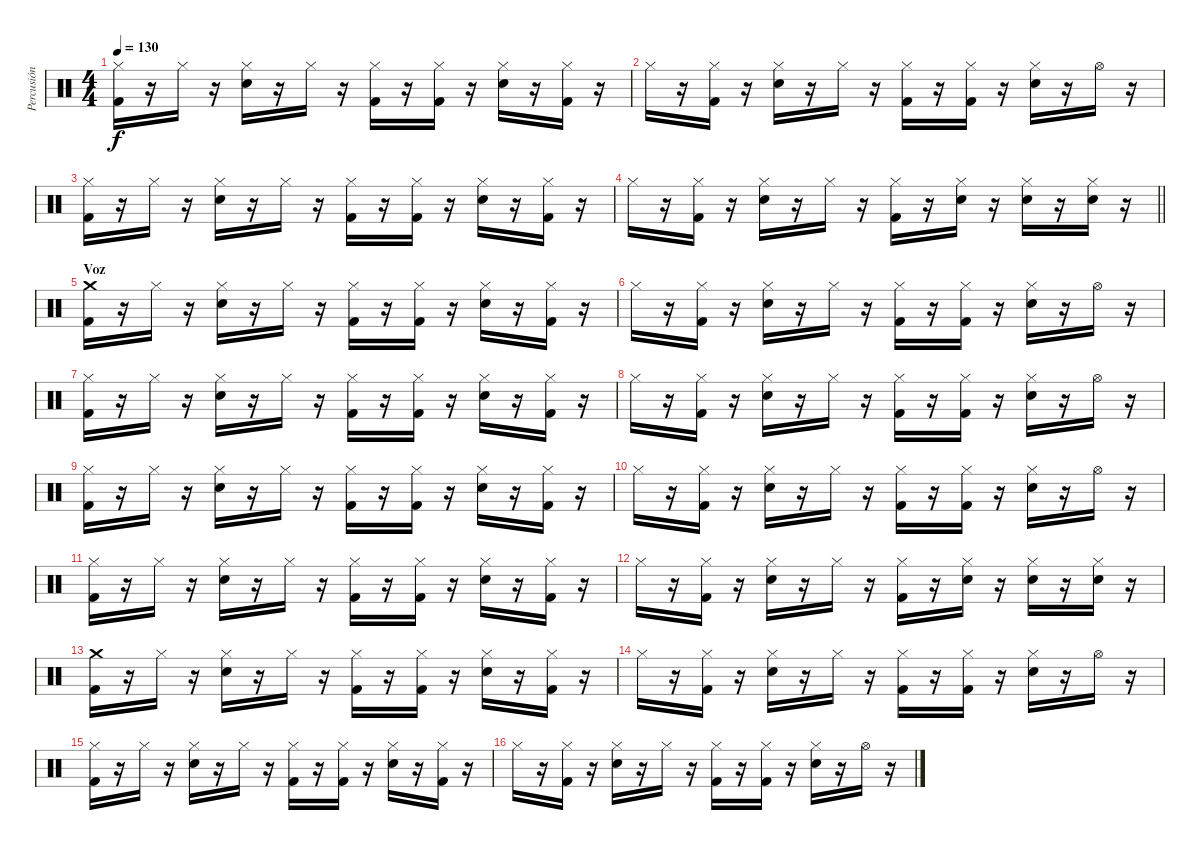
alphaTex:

\track ("Percusión" "Percusión") {instrument percussion}
\staff {score}
\articulation defaults
\ts (4 4)
\tempo 130
\clef neutral
\ks c
("Hi-Hat (closed)" "Kick (hit) 2").16{dy f} r.16 "Hi-Hat (closed)".16 r.16 ("Hi-Hat (closed)" "Electric Snare (hit)").16 r.16 "Hi-Hat (closed)".16 r.16 ("Hi-Hat (closed)" "Kick (hit) 2").16 r.16 ("Hi-Hat (closed)" "Kick (hit) 2").16 r.16 ("Hi-Hat (closed)" "Electric Snare (hit)").16 r.16 ("Hi-Hat (closed)" "Kick (hit) 2").16 r.16 |
"Hi-Hat (closed)".16 r.16 ("Hi-Hat (closed)" "Kick (hit) 2").16 r.16 ("Hi-Hat (closed)" "Electric Snare (hit)").16 r.16 "Hi-Hat (closed)".16 r.16 ("Hi-Hat (closed)" "Kick (hit) 2").16 r.16 ("Hi-Hat (closed)" "Kick (hit) 2").16 r.16 ("Hi-Hat (closed)" "Electric Snare (hit)").16 r.16 "Hi-Hat (open)".16 r.16 |
("Hi-Hat (closed)" "Kick (hit) 2").16 r.16 "Hi-Hat (closed)".16 r.16 ("Hi-Hat (closed)" "Electric Snare (hit)").16 r.16 "Hi-Hat (closed)".16 r.16 ("Hi-Hat (closed)" "Kick (hit) 2").16 r.16 ("Hi-Hat (closed)" "Kick (hit) 2").16 r.16 ("Hi-Hat (closed)" "Electric Snare (hit)").16 r.16 ("Hi-Hat (closed)" "Kick (hit) 2").16 r.16 |
\barLineRight lightlight "Hi-Hat (closed)".16
r.16 ("Hi-Hat (closed)" "Kick (hit) 2").16 r.16 ("Hi-Hat (closed)" "Electric Snare (hit)").16 r.16 "Hi-Hat (closed)".16 r.16 ("Hi-Hat (closed)" "Kick (hit) 2").16 r.16 ("Hi-Hat (closed)" "Electric Snare (hit)").16 r.16 ("Hi-Hat (closed)" "Electric Snare (hit)").16 r.16 ("Hi-Hat (closed)" "Electric Snare (hit)").16 r.16 |
\section ("" "Voz")
("Crash medium (hit)" "Kick (hit) 2").16 r.16 "Hi-Hat (closed)".16 r.16 ("Hi-Hat (closed)" "Electric Snare (hit)").16 r.16 "Hi-Hat (closed)".16 r.16 ("Hi-Hat (closed)" "Kick (hit) 2").16 r.16 ("Hi-Hat (closed)" "Kick (hit) 2").16 r.16 ("Hi-Hat (closed)" "Electric Snare (hit)").16 r.16 ("Hi-Hat (closed)" "Kick (hit) 2").16 r.16 |
"Hi-Hat (closed)".16 r.16 ("Hi-Hat (closed)" "Kick (hit) 2").16 r.16 ("Hi-Hat (closed)" "Electric Snare (hit)").16 r.16 "Hi-Hat (closed)".16 r.16 ("Hi-Hat (closed)" "Kick (hit) 2").16 r.16 ("Hi-Hat (closed)" "Kick (hit) 2").16 r.16 ("Hi-Hat (closed)" "Electric Snare (hit)").16 r.16 "Hi-Hat (open)".16 r.16 |
("Hi-Hat (closed)" "Kick (hit) 2").16 r.16 "Hi-Hat (closed)".16 r.16 ("Hi-Hat (closed)" "Electric Snare (hit)").16 r.16 "Hi-Hat (closed)".16 r.16 ("Hi-Hat (closed)" "Kick (hit) 2").16 r.16 ("Hi-Hat (closed)" "Kick (hit) 2").16 r.16 ("Hi-Hat (closed)" "Electric Snare (hit)").16 r.16 ("Hi-Hat (closed)" "Kick (hit) 2").16 r.16 |
"Hi-Hat (closed)".16 r.16 ("Hi-Hat (closed)" "Kick (hit) 2").16 r.16 ("Hi-Hat (closed)" "Electric Snare (hit)").16 r.16 "Hi-Hat (closed)".16 r.16 ("Hi-Hat (closed)" "Kick (hit) 2").16 r.16 ("Hi-Hat (closed)" "Kick (hit) 2").16 r.16 ("Hi-Hat (closed)" "Electric Snare (hit)").16 r.16 "Hi-Hat (open)".16 r.16 |
("Hi-Hat (closed)" "Kick (hit) 2").16 r.16 "Hi-Hat (closed)".16 r.16 ("Hi-Hat (closed)" "Electric Snare (hit)").16 r.16 "Hi-Hat (closed)".16 r.16 ("Hi-Hat (closed)" "Kick (hit) 2").16 r.16 ("Hi-Hat (closed)" "Kick (hit) 2").16 r.16 ("Hi-Hat (closed)" "Electric Snare (hit)").16 r.16 ("Hi-Hat (closed)" "Kick (hit) 2").16 r.16 |
"Hi-Hat (closed)".16 r.16 ("Hi-Hat (closed)" "Kick (hit) 2").16 r.16 ("Hi-Hat (closed)" "Electric Snare (hit)").16 r.16 "Hi-Hat (closed)".16 r.16 ("Hi-Hat (closed)" "Kick (hit) 2").16 r.16 ("Hi-Hat (closed)" "Kick (hit) 2").16 r.16 ("Hi-Hat (closed)" "Electric Snare (hit)").16 r.16 "Hi-Hat (open)".16 r.16 |
("Hi-Hat (closed)" "Kick (hit) 2").16 r.16 "Hi-Hat (closed)".16 r.16 ("Hi-Hat (closed)" "Electric Snare (hit)").16 r.16 "Hi-Hat (closed)".16 r.16 ("Hi-Hat (closed)" "Kick (hit) 2").16 r.16 ("Hi-Hat (closed)" "Kick (hit) 2").16 r.16 ("Hi-Hat (closed)" "Electric Snare (hit)").16 r.16 ("Hi-Hat (closed)" "Kick (hit) 2").16 r.16 |
"Hi-Hat (closed)".16 r.16 ("Hi-Hat (closed)" "Kick (hit) 2").16 r.16 ("Hi-Hat (closed)" "Electric Snare (hit)").16 r.16 "Hi-Hat (closed)".16 r.16 ("Hi-Hat (closed)" "Kick (hit) 2").16 r.16 ("Hi-Hat (closed)" "Electric Snare (hit)").16 r.16 ("Hi-Hat (closed)" "Electric Snare (hit)").16 r.16 ("Hi-Hat (closed)" "Electric Snare (hit)").16 r.16 |
("Crash medium (hit)" "Kick (hit) 2").16 r.16 "Hi-Hat (closed)".16 r.16 ("Hi-Hat (closed)" "Electric Snare (hit)").16 r.16 "Hi-Hat (closed)".16 r.16 ("Hi-Hat (closed)" "Kick (hit) 2").16 r.16 ("Hi-Hat (closed)" "Kick (hit) 2").16 r.16 ("Hi-Hat (closed)" "Electric Snare (hit)").16 r.16 ("Hi-Hat (closed)" "Kick (hit) 2").16 r.16 |
"Hi-Hat (closed)".16 r.16 ("Hi-Hat (closed)" "Kick (hit) 2").16 r.16 ("Hi-Hat (closed)" "Electric Snare (hit)").16 r.16 "Hi-Hat (closed)".16 r.16 ("Hi-Hat (closed)" "Kick (hit) 2").16 r.16 ("Hi-Hat (closed)" "Kick (hit) 2").16 r.16 ("Hi-Hat (closed)" "Electric Snare (hit)").16 r.16 "Hi-Hat (open)".16 r.16 |
("Hi-Hat (closed)" "Kick (hit) 2").16 r.16 "Hi-Hat (closed)".16 r.16 ("Hi-Hat (closed)" "Electric Snare (hit)").16 r.16 "Hi-Hat (closed)".16 r.16 ("Hi-Hat (closed)" "Kick (hit) 2").16 r.16 ("Hi-Hat (closed)" "Kick (hit) 2").16 r.16 ("Hi-Hat (closed)" "Electric Snare (hit)").16 r.16 ("Hi-Hat (closed)" "Kick (hit) 2").16 r.16 |
"Hi-Hat (closed)".16 r.16 ("Hi-Hat (closed)" "Kick (hit) 2").16 r.16 ("Hi-Hat (closed)" "Electric Snare (hit)").16 r.16 "Hi-Hat (closed)".16 r.16 ("Hi-Hat (closed)" "Kick (hit) 2").16 r.16 ("Hi-Hat (closed)" "Kick (hit) 2").16 r.16 ("Hi-Hat (closed)" "Electric Snare (hit)").16 r.16 "Hi-Hat (open)".16 r.16
